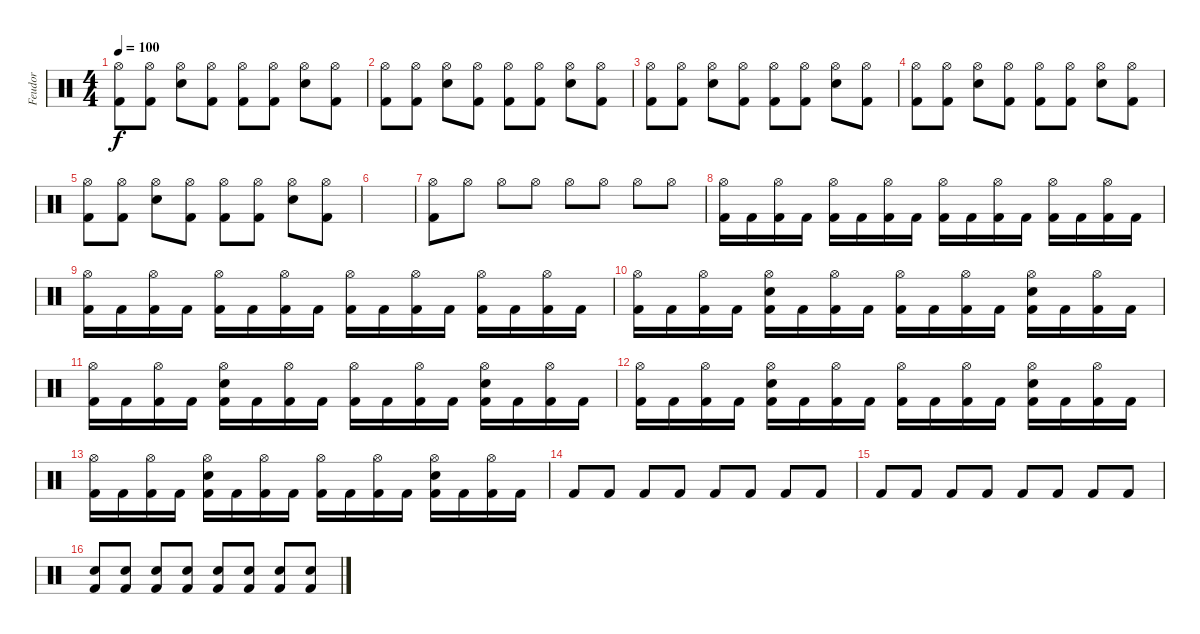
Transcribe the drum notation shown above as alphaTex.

\track ("Feudor" "Feudor") {instrument percussion}
\staff {score}
\articulation defaults
\ts (4 4)
\tempo 100
\clef neutral
\ks c
("Hi-Hat (open)" "Kick (hit) 2").8{dy f} ("Hi-Hat (open)" "Kick (hit) 2").8 ("Hi-Hat (open)" "Electric Snare (hit)").8 ("Hi-Hat (open)" "Kick (hit) 2").8 ("Hi-Hat (open)" "Kick (hit) 2").8 ("Hi-Hat (open)" "Kick (hit) 2").8 ("Hi-Hat (open)" "Electric Snare (hit)").8 ("Hi-Hat (open)" "Kick (hit) 2").8 |
("Hi-Hat (open)" "Kick (hit) 2").8 ("Hi-Hat (open)" "Kick (hit) 2").8 ("Hi-Hat (open)" "Electric Snare (hit)").8 ("Hi-Hat (open)" "Kick (hit) 2").8 ("Hi-Hat (open)" "Kick (hit) 2").8 ("Hi-Hat (open)" "Kick (hit) 2").8 ("Hi-Hat (open)" "Electric Snare (hit)").8 ("Hi-Hat (open)" "Kick (hit) 2").8 |
("Hi-Hat (open)" "Kick (hit) 2").8 ("Hi-Hat (open)" "Kick (hit) 2").8 ("Hi-Hat (open)" "Electric Snare (hit)").8 ("Hi-Hat (open)" "Kick (hit) 2").8 ("Hi-Hat (open)" "Kick (hit) 2").8 ("Hi-Hat (open)" "Kick (hit) 2").8 ("Hi-Hat (open)" "Electric Snare (hit)").8 ("Hi-Hat (open)" "Kick (hit) 2").8 |
("Hi-Hat (open)" "Kick (hit) 2").8 ("Hi-Hat (open)" "Kick (hit) 2").8 ("Hi-Hat (open)" "Electric Snare (hit)").8 ("Hi-Hat (open)" "Kick (hit) 2").8 ("Hi-Hat (open)" "Kick (hit) 2").8 ("Hi-Hat (open)" "Kick (hit) 2").8 ("Hi-Hat (open)" "Electric Snare (hit)").8 ("Hi-Hat (open)" "Kick (hit) 2").8 |
("Hi-Hat (open)" "Kick (hit) 2").8 ("Hi-Hat (open)" "Kick (hit) 2").8 ("Hi-Hat (open)" "Electric Snare (hit)").8 ("Hi-Hat (open)" "Kick (hit) 2").8 ("Hi-Hat (open)" "Kick (hit) 2").8 ("Hi-Hat (open)" "Kick (hit) 2").8 ("Hi-Hat (open)" "Electric Snare (hit)").8 ("Hi-Hat (open)" "Kick (hit) 2").8 |
|
("Hi-Hat (open)" "Kick (hit) 2").8 "Hi-Hat (open)".8 "Hi-Hat (open)".8 "Hi-Hat (open)".8 "Hi-Hat (open)".8 "Hi-Hat (open)".8 "Hi-Hat (open)".8 "Hi-Hat (open)".8 |
("Hi-Hat (open)" "Kick (hit) 2").16 "Kick (hit) 2".16 ("Hi-Hat (open)" "Kick (hit) 2").16 "Kick (hit) 2".16 ("Hi-Hat (open)" "Kick (hit) 2").16 "Kick (hit) 2".16 ("Hi-Hat (open)" "Kick (hit) 2").16 "Kick (hit) 2".16 ("Hi-Hat (open)" "Kick (hit) 2").16 "Kick (hit) 2".16 ("Hi-Hat (open)" "Kick (hit) 2").16 "Kick (hit) 2".16 ("Hi-Hat (open)" "Kick (hit) 2").16 "Kick (hit) 2".16 ("Hi-Hat (open)" "Kick (hit) 2").16 "Kick (hit) 2".16 |
("Hi-Hat (open)" "Kick (hit) 2").16 "Kick (hit) 2".16 ("Hi-Hat (open)" "Kick (hit) 2").16 "Kick (hit) 2".16 ("Hi-Hat (open)" "Kick (hit) 2").16 "Kick (hit) 2".16 ("Hi-Hat (open)" "Kick (hit) 2").16 "Kick (hit) 2".16 ("Hi-Hat (open)" "Kick (hit) 2").16 "Kick (hit) 2".16 ("Hi-Hat (open)" "Kick (hit) 2").16 "Kick (hit) 2".16 ("Hi-Hat (open)" "Kick (hit) 2").16 "Kick (hit) 2".16 ("Hi-Hat (open)" "Kick (hit) 2").16 "Kick (hit) 2".16 |
("Hi-Hat (open)" "Kick (hit) 2").16 "Kick (hit) 2".16 ("Hi-Hat (open)" "Kick (hit) 2").16 "Kick (hit) 2".16 ("Hi-Hat (open)" "Electric Snare (hit)" "Kick (hit) 2").16 "Kick (hit) 2".16 ("Hi-Hat (open)" "Kick (hit) 2").16 "Kick (hit) 2".16 ("Hi-Hat (open)" "Kick (hit) 2").16 "Kick (hit) 2".16 ("Hi-Hat (open)" "Kick (hit) 2").16 "Kick (hit) 2".16 ("Hi-Hat (open)" "Electric Snare (hit)" "Kick (hit) 2").16 "Kick (hit) 2".16 ("Hi-Hat (open)" "Kick (hit) 2").16 "Kick (hit) 2".16 |
("Hi-Hat (open)" "Kick (hit) 2").16 "Kick (hit) 2".16 ("Hi-Hat (open)" "Kick (hit) 2").16 "Kick (hit) 2".16 ("Hi-Hat (open)" "Electric Snare (hit)" "Kick (hit) 2").16 "Kick (hit) 2".16 ("Hi-Hat (open)" "Kick (hit) 2").16 "Kick (hit) 2".16 ("Hi-Hat (open)" "Kick (hit) 2").16 "Kick (hit) 2".16 ("Hi-Hat (open)" "Kick (hit) 2").16 "Kick (hit) 2".16 ("Hi-Hat (open)" "Electric Snare (hit)" "Kick (hit) 2").16 "Kick (hit) 2".16 ("Hi-Hat (open)" "Kick (hit) 2").16 "Kick (hit) 2".16 |
("Hi-Hat (open)" "Kick (hit) 2").16 "Kick (hit) 2".16 ("Hi-Hat (open)" "Kick (hit) 2").16 "Kick (hit) 2".16 ("Hi-Hat (open)" "Electric Snare (hit)" "Kick (hit) 2").16 "Kick (hit) 2".16 ("Hi-Hat (open)" "Kick (hit) 2").16 "Kick (hit) 2".16 ("Hi-Hat (open)" "Kick (hit) 2").16 "Kick (hit) 2".16 ("Hi-Hat (open)" "Kick (hit) 2").16 "Kick (hit) 2".16 ("Hi-Hat (open)" "Electric Snare (hit)" "Kick (hit) 2").16 "Kick (hit) 2".16 ("Hi-Hat (open)" "Kick (hit) 2").16 "Kick (hit) 2".16 |
("Hi-Hat (open)" "Kick (hit) 2").16 "Kick (hit) 2".16 ("Hi-Hat (open)" "Kick (hit) 2").16 "Kick (hit) 2".16 ("Hi-Hat (open)" "Electric Snare (hit)" "Kick (hit) 2").16 "Kick (hit) 2".16 ("Hi-Hat (open)" "Kick (hit) 2").16 "Kick (hit) 2".16 ("Hi-Hat (open)" "Kick (hit) 2").16 "Kick (hit) 2".16 ("Hi-Hat (open)" "Kick (hit) 2").16 "Kick (hit) 2".16 ("Hi-Hat (open)" "Electric Snare (hit)" "Kick (hit) 2").16 "Kick (hit) 2".16 ("Hi-Hat (open)" "Kick (hit) 2").16 "Kick (hit) 2".16 |
"Kick (hit) 2".8{volume 0} "Kick (hit) 2".8{volume 16} "Kick (hit) 2".8 "Kick (hit) 2".8 "Kick (hit) 2".8 "Kick (hit) 2".8 "Kick (hit) 2".8 "Kick (hit) 2".8 |
"Kick (hit) 2".8 "Kick (hit) 2".8 "Kick (hit) 2".8 "Kick (hit) 2".8 "Kick (hit) 2".8 "Kick (hit) 2".8 "Kick (hit) 2".8 "Kick (hit) 2".8 |
("Electric Snare (hit)" "Kick (hit) 2").8 ("Electric Snare (hit)" "Kick (hit) 2").8 ("Electric Snare (hit)" "Kick (hit) 2").8 ("Electric Snare (hit)" "Kick (hit) 2").8 ("Electric Snare (hit)" "Kick (hit) 2").8 ("Electric Snare (hit)" "Kick (hit) 2").8 ("Electric Snare (hit)" "Kick (hit) 2").8 ("Electric Snare (hit)" "Kick (hit) 2").8
